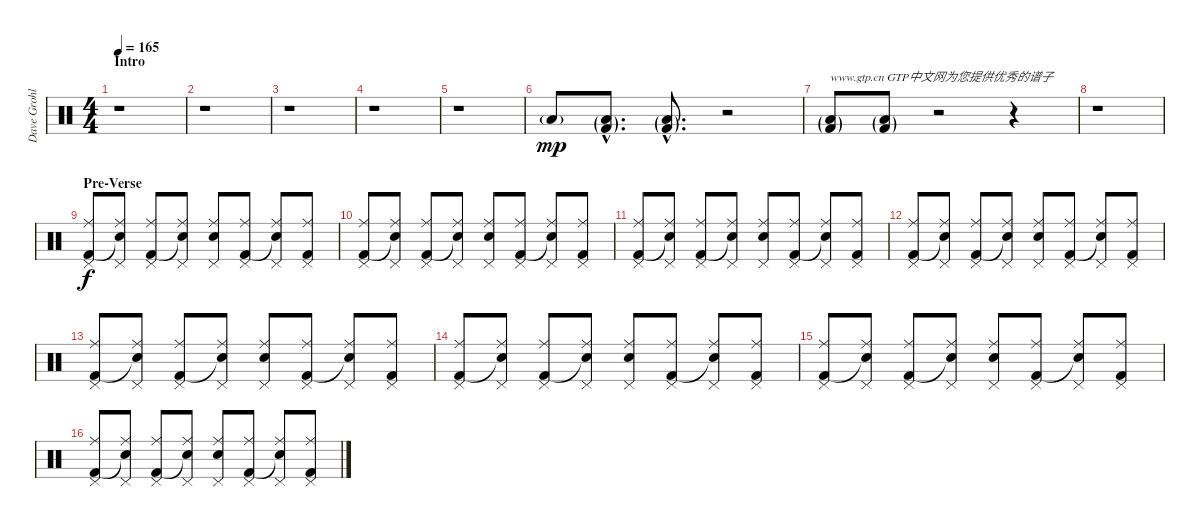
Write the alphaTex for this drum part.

\track ("Dave Grohl" "Dave Grohl") {instrument percussion}
\staff {score}
\articulation defaults
\ts (4 4)
\section ("" "Intro")
\tempo 165
\clef neutral
\ks c
r.1{dy mp} |
r.1 |
r.1 |
r.1 |
r.1 |
"Low Tom (hit)"{g}.8 ("Kick (hit) 2"{g hac} "Low Tom (hit)"{g hac}).8{d} ("Kick (hit) 2"{g hac} "Low Tom (hit)"{g hac}).8{d} r.2 |
("Kick (hit) 2"{g} "Low Floor Tom (hit)"{g}).8{txt "www.gtp.cn GTP中文网为您提供优秀的谱子"} ("Kick (hit) 2"{g} "Low Floor Tom (hit)"{g}).8 r.2 r.4 |
r.1 |
\section ("" "Pre-Verse")
("Ride (middle)" "Pedal Hi-Hat (hit)" "Kick (hit) 2").8{dy f} ("Ride (middle)" "Pedal Hi-Hat (hit)" "Snare (hit)"{t}).8 ("Ride (middle)" "Pedal Hi-Hat (hit)" "Kick (hit) 2").8 ("Ride (middle)" "Pedal Hi-Hat (hit)" "Snare (hit)"{t}).8 ("Ride (middle)" "Pedal Hi-Hat (hit)" "Snare (hit) 2").8 ("Ride (middle)" "Pedal Hi-Hat (hit)" "Kick (hit) 2").8 ("Ride (middle)" "Pedal Hi-Hat (hit)" "Snare (hit)"{t}).8 ("Ride (middle)" "Pedal Hi-Hat (hit)" "Kick (hit) 2").8 |
("Ride (middle)" "Pedal Hi-Hat (hit)" "Kick (hit) 2").8 ("Ride (middle)" "Pedal Hi-Hat (hit)" "Snare (hit)"{t}).8 ("Ride (middle)" "Pedal Hi-Hat (hit)" "Kick (hit) 2").8 ("Ride (middle)" "Pedal Hi-Hat (hit)" "Snare (hit)"{t}).8 ("Ride (middle)" "Pedal Hi-Hat (hit)" "Snare (hit) 2").8 ("Ride (middle)" "Pedal Hi-Hat (hit)" "Kick (hit) 2").8 ("Ride (middle)" "Pedal Hi-Hat (hit)" "Snare (hit)"{t}).8 ("Ride (middle)" "Pedal Hi-Hat (hit)" "Kick (hit) 2").8 |
("Ride (middle)" "Pedal Hi-Hat (hit)" "Kick (hit) 2").8 ("Ride (middle)" "Pedal Hi-Hat (hit)" "Snare (hit)"{t}).8 ("Ride (middle)" "Pedal Hi-Hat (hit)" "Kick (hit) 2").8 ("Ride (middle)" "Pedal Hi-Hat (hit)" "Snare (hit)"{t}).8 ("Ride (middle)" "Pedal Hi-Hat (hit)" "Snare (hit) 2").8 ("Ride (middle)" "Pedal Hi-Hat (hit)" "Kick (hit) 2").8 ("Ride (middle)" "Pedal Hi-Hat (hit)" "Snare (hit)"{t}).8 ("Ride (middle)" "Pedal Hi-Hat (hit)" "Kick (hit) 2").8 |
("Ride (middle)" "Pedal Hi-Hat (hit)" "Kick (hit) 2").8 ("Ride (middle)" "Pedal Hi-Hat (hit)" "Snare (hit)"{t}).8 ("Ride (middle)" "Pedal Hi-Hat (hit)" "Kick (hit) 2").8 ("Ride (middle)" "Pedal Hi-Hat (hit)" "Snare (hit)"{t}).8 ("Ride (middle)" "Pedal Hi-Hat (hit)" "Snare (hit) 2").8 ("Ride (middle)" "Pedal Hi-Hat (hit)" "Kick (hit) 2").8 ("Ride (middle)" "Pedal Hi-Hat (hit)" "Snare (hit)"{t}).8 ("Ride (middle)" "Pedal Hi-Hat (hit)" "Kick (hit) 2").8 |
("Ride (middle)" "Pedal Hi-Hat (hit)" "Kick (hit) 2").8 ("Ride (middle)" "Pedal Hi-Hat (hit)" "Snare (hit)"{t}).8 ("Ride (middle)" "Pedal Hi-Hat (hit)" "Kick (hit) 2").8 ("Ride (middle)" "Pedal Hi-Hat (hit)" "Snare (hit)"{t}).8 ("Ride (middle)" "Pedal Hi-Hat (hit)" "Snare (hit) 2").8 ("Ride (middle)" "Pedal Hi-Hat (hit)" "Kick (hit) 2").8 ("Ride (middle)" "Pedal Hi-Hat (hit)" "Snare (hit)"{t}).8 ("Ride (middle)" "Pedal Hi-Hat (hit)" "Kick (hit) 2").8 |
("Ride (middle)" "Pedal Hi-Hat (hit)" "Kick (hit) 2").8 ("Ride (middle)" "Pedal Hi-Hat (hit)" "Snare (hit)"{t}).8 ("Ride (middle)" "Pedal Hi-Hat (hit)" "Kick (hit) 2").8 ("Ride (middle)" "Pedal Hi-Hat (hit)" "Snare (hit)"{t}).8 ("Ride (middle)" "Pedal Hi-Hat (hit)" "Snare (hit) 2").8 ("Ride (middle)" "Pedal Hi-Hat (hit)" "Kick (hit) 2").8 ("Ride (middle)" "Pedal Hi-Hat (hit)" "Snare (hit)"{t}).8 ("Ride (middle)" "Pedal Hi-Hat (hit)" "Kick (hit) 2").8 |
("Ride (middle)" "Pedal Hi-Hat (hit)" "Kick (hit) 2").8 ("Ride (middle)" "Pedal Hi-Hat (hit)" "Snare (hit)"{t}).8 ("Ride (middle)" "Pedal Hi-Hat (hit)" "Kick (hit) 2").8 ("Ride (middle)" "Pedal Hi-Hat (hit)" "Snare (hit)"{t}).8 ("Ride (middle)" "Pedal Hi-Hat (hit)" "Snare (hit) 2").8 ("Ride (middle)" "Pedal Hi-Hat (hit)" "Kick (hit) 2").8 ("Ride (middle)" "Pedal Hi-Hat (hit)" "Snare (hit)"{t}).8 ("Ride (middle)" "Pedal Hi-Hat (hit)" "Kick (hit) 2").8 |
("Ride (middle)" "Pedal Hi-Hat (hit)" "Kick (hit) 2").8 ("Ride (middle)" "Pedal Hi-Hat (hit)" "Snare (hit)"{t}).8 ("Ride (middle)" "Pedal Hi-Hat (hit)" "Kick (hit) 2").8 ("Ride (middle)" "Pedal Hi-Hat (hit)" "Snare (hit)"{t}).8 ("Ride (middle)" "Pedal Hi-Hat (hit)" "Snare (hit) 2").8 ("Ride (middle)" "Pedal Hi-Hat (hit)" "Kick (hit) 2").8 ("Ride (middle)" "Pedal Hi-Hat (hit)" "Snare (hit)"{t}).8 ("Ride (middle)" "Pedal Hi-Hat (hit)" "Kick (hit) 2").8
